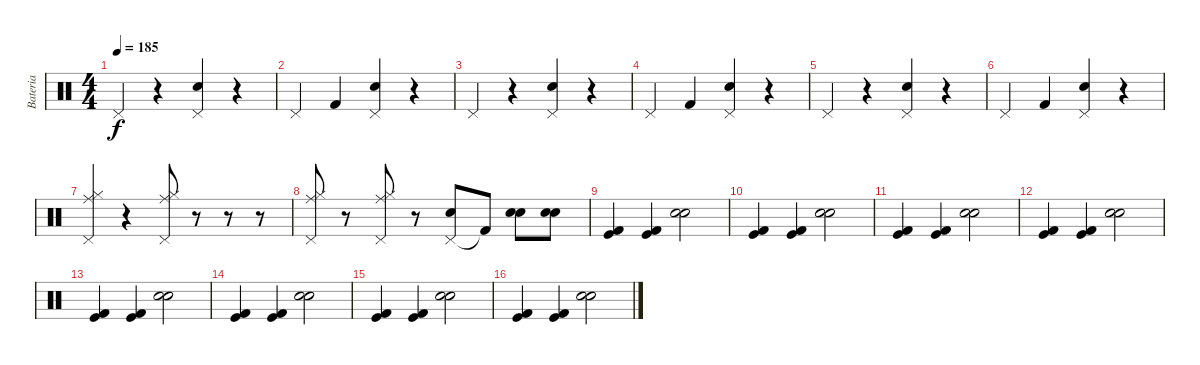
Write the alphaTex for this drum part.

\track ("Bateria" "Bateria") {instrument percussion}
\staff {score}
\articulation defaults
\ts (4 4)
\tempo 185
\clef neutral
\ks c "Pedal Hi-Hat (hit)".4{dy f}
r.4 ("Pedal Hi-Hat (hit)" "Electric Snare (hit)").4 r.4 |
"Pedal Hi-Hat (hit)".4 "Kick (hit) 2".4 ("Pedal Hi-Hat (hit)" "Electric Snare (hit)").4 r.4 |
"Pedal Hi-Hat (hit)".4 r.4 ("Pedal Hi-Hat (hit)" "Electric Snare (hit)").4 r.4 |
"Pedal Hi-Hat (hit)".4 "Kick (hit) 2".4 ("Pedal Hi-Hat (hit)" "Electric Snare (hit)").4 r.4 |
"Pedal Hi-Hat (hit)".4 r.4 ("Pedal Hi-Hat (hit)" "Electric Snare (hit)").4 r.4 |
"Pedal Hi-Hat (hit)".4 "Kick (hit) 2".4 ("Pedal Hi-Hat (hit)" "Electric Snare (hit)").4 r.4 |
("Pedal Hi-Hat (hit)" "Hi-Hat (closed)" "Ride (middle)").4 r.4 ("Pedal Hi-Hat (hit)" "Hi-Hat (closed)" "Ride (middle)").8 r.8 r.8 r.8 |
("Pedal Hi-Hat (hit)" "Hi-Hat (closed)" "Ride (middle)").8 r.8 ("Pedal Hi-Hat (hit)" "Hi-Hat (closed)" "Ride (middle)").8 r.8 ("Pedal Hi-Hat (hit)" "Electric Snare (hit)").8 "Kick (hit) 2"{t}.8 ("Electric Snare (hit)" "Electric Snare (hit)").8 ("Electric Snare (hit)" "Electric Snare (hit)").8 |
("Kick (hit) 2" "Kick (hit)").4 ("Kick (hit) 2" "Kick (hit)").4 ("Electric Snare (hit)" "Snare (hit) 2").2 |
("Kick (hit) 2" "Kick (hit)").4 ("Kick (hit) 2" "Kick (hit)").4 ("Electric Snare (hit)" "Snare (hit) 2").2 |
("Kick (hit) 2" "Kick (hit)").4 ("Kick (hit) 2" "Kick (hit)").4 ("Electric Snare (hit)" "Snare (hit) 2").2 |
("Kick (hit) 2" "Kick (hit)").4 ("Kick (hit) 2" "Kick (hit)").4 ("Electric Snare (hit)" "Snare (hit) 2").2 |
("Kick (hit) 2" "Kick (hit)").4 ("Kick (hit) 2" "Kick (hit)").4 ("Electric Snare (hit)" "Snare (hit) 2").2 |
("Kick (hit) 2" "Kick (hit)").4 ("Kick (hit) 2" "Kick (hit)").4 ("Electric Snare (hit)" "Snare (hit) 2").2 |
("Kick (hit) 2" "Kick (hit)").4 ("Kick (hit) 2" "Kick (hit)").4 ("Electric Snare (hit)" "Snare (hit) 2").2 |
("Kick (hit) 2" "Kick (hit)").4 ("Kick (hit) 2" "Kick (hit)").4 ("Electric Snare (hit)" "Snare (hit) 2").2
